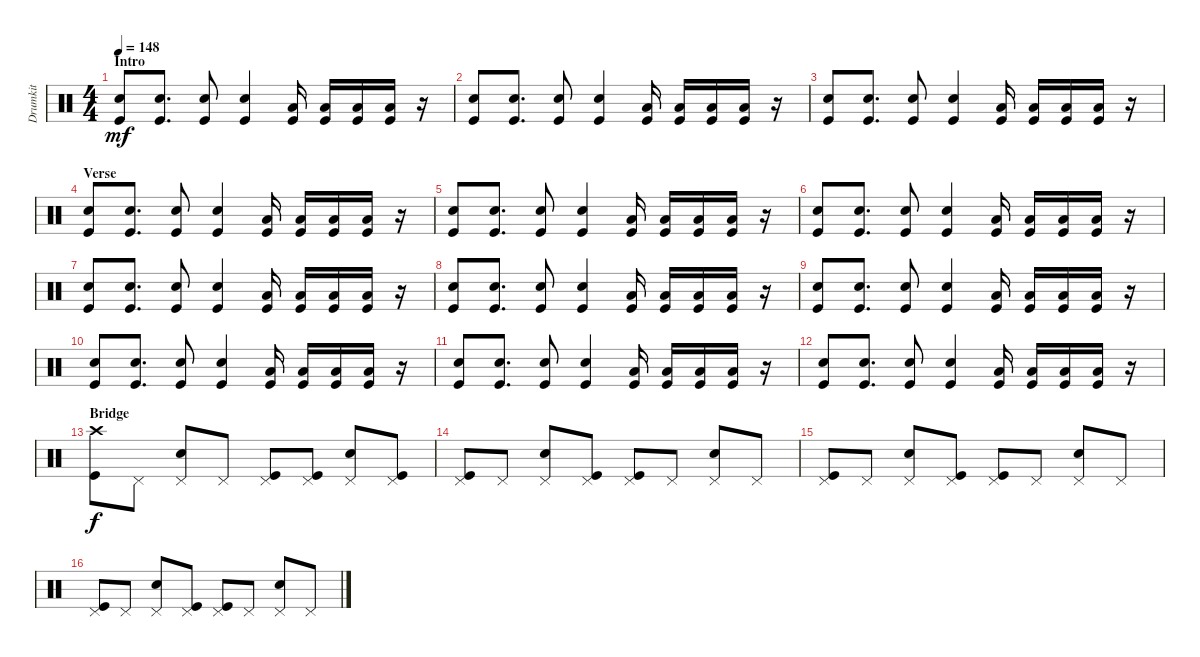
\track ("Drumkit" "Drumkit") {instrument percussion}
\staff {score}
\articulation defaults
\ts (4 4)
\section ("" "Intro")
\tempo 148
\clef neutral
\ks c
("Snare (hit) 2" "Kick (hit)").8{dy mf} ("Snare (hit) 2" "Kick (hit)").8{d} ("Snare (hit) 2" "Kick (hit)").8 ("Snare (hit) 2" "Kick (hit)").4 ("Kick (hit)" "Low Tom (hit)").16 ("Kick (hit)" "Low Tom (hit)").16 ("Kick (hit)" "Low Tom (hit)").16 ("Kick (hit)" "Low Tom (hit)").16 r.16 |
("Snare (hit) 2" "Kick (hit)").8 ("Snare (hit) 2" "Kick (hit)").8{d} ("Snare (hit) 2" "Kick (hit)").8 ("Snare (hit) 2" "Kick (hit)").4 ("Kick (hit)" "Low Tom (hit)").16 ("Kick (hit)" "Low Tom (hit)").16 ("Kick (hit)" "Low Tom (hit)").16 ("Kick (hit)" "Low Tom (hit)").16 r.16 |
("Snare (hit) 2" "Kick (hit)").8 ("Snare (hit) 2" "Kick (hit)").8{d} ("Snare (hit) 2" "Kick (hit)").8 ("Snare (hit) 2" "Kick (hit)").4 ("Kick (hit)" "Low Tom (hit)").16 ("Kick (hit)" "Low Tom (hit)").16 ("Kick (hit)" "Low Tom (hit)").16 ("Kick (hit)" "Low Tom (hit)").16 r.16 |
\section ("" "Verse")
("Snare (hit) 2" "Kick (hit)").8 ("Snare (hit) 2" "Kick (hit)").8{d} ("Snare (hit) 2" "Kick (hit)").8 ("Snare (hit) 2" "Kick (hit)").4 ("Kick (hit)" "Low Tom (hit)").16 ("Kick (hit)" "Low Tom (hit)").16 ("Kick (hit)" "Low Tom (hit)").16 ("Kick (hit)" "Low Tom (hit)").16 r.16 |
("Snare (hit) 2" "Kick (hit)").8 ("Snare (hit) 2" "Kick (hit)").8{d} ("Snare (hit) 2" "Kick (hit)").8 ("Snare (hit) 2" "Kick (hit)").4 ("Kick (hit)" "Low Tom (hit)").16 ("Kick (hit)" "Low Tom (hit)").16 ("Kick (hit)" "Low Tom (hit)").16 ("Kick (hit)" "Low Tom (hit)").16 r.16 |
("Snare (hit) 2" "Kick (hit)").8 ("Snare (hit) 2" "Kick (hit)").8{d} ("Snare (hit) 2" "Kick (hit)").8 ("Snare (hit) 2" "Kick (hit)").4 ("Kick (hit)" "Low Tom (hit)").16 ("Kick (hit)" "Low Tom (hit)").16 ("Kick (hit)" "Low Tom (hit)").16 ("Kick (hit)" "Low Tom (hit)").16 r.16 |
("Snare (hit) 2" "Kick (hit)").8 ("Snare (hit) 2" "Kick (hit)").8{d} ("Snare (hit) 2" "Kick (hit)").8 ("Snare (hit) 2" "Kick (hit)").4 ("Kick (hit)" "Low Tom (hit)").16 ("Kick (hit)" "Low Tom (hit)").16 ("Kick (hit)" "Low Tom (hit)").16 ("Kick (hit)" "Low Tom (hit)").16 r.16 |
("Snare (hit) 2" "Kick (hit)").8 ("Snare (hit) 2" "Kick (hit)").8{d} ("Snare (hit) 2" "Kick (hit)").8 ("Snare (hit) 2" "Kick (hit)").4 ("Kick (hit)" "Low Tom (hit)").16 ("Kick (hit)" "Low Tom (hit)").16 ("Kick (hit)" "Low Tom (hit)").16 ("Kick (hit)" "Low Tom (hit)").16 r.16 |
("Snare (hit) 2" "Kick (hit)").8 ("Snare (hit) 2" "Kick (hit)").8{d} ("Snare (hit) 2" "Kick (hit)").8 ("Snare (hit) 2" "Kick (hit)").4 ("Kick (hit)" "Low Tom (hit)").16 ("Kick (hit)" "Low Tom (hit)").16 ("Kick (hit)" "Low Tom (hit)").16 ("Kick (hit)" "Low Tom (hit)").16 r.16 |
("Snare (hit) 2" "Kick (hit)").8 ("Snare (hit) 2" "Kick (hit)").8{d} ("Snare (hit) 2" "Kick (hit)").8 ("Snare (hit) 2" "Kick (hit)").4 ("Kick (hit)" "Low Tom (hit)").16 ("Kick (hit)" "Low Tom (hit)").16 ("Kick (hit)" "Low Tom (hit)").16 ("Kick (hit)" "Low Tom (hit)").16 r.16 |
("Snare (hit) 2" "Kick (hit)").8 ("Snare (hit) 2" "Kick (hit)").8{d} ("Snare (hit) 2" "Kick (hit)").8 ("Snare (hit) 2" "Kick (hit)").4 ("Kick (hit)" "Low Tom (hit)").16 ("Kick (hit)" "Low Tom (hit)").16 ("Kick (hit)" "Low Tom (hit)").16 ("Kick (hit)" "Low Tom (hit)").16 r.16 |
("Snare (hit) 2" "Kick (hit)").8 ("Snare (hit) 2" "Kick (hit)").8{d} ("Snare (hit) 2" "Kick (hit)").8 ("Snare (hit) 2" "Kick (hit)").4 ("Kick (hit)" "Low Tom (hit)").16 ("Kick (hit)" "Low Tom (hit)").16 ("Kick (hit)" "Low Tom (hit)").16 ("Kick (hit)" "Low Tom (hit)").16 r.16 |
\section ("" "Bridge")
("Crash high (hit)" "Kick (hit)").8{dy f} "Pedal Hi-Hat (hit)".8 ("Pedal Hi-Hat (hit)" "Snare (hit) 2").8 "Pedal Hi-Hat (hit)".8 ("Pedal Hi-Hat (hit)" "Kick (hit)").8 ("Pedal Hi-Hat (hit)" "Kick (hit)").8 ("Pedal Hi-Hat (hit)" "Snare (hit) 2").8 ("Pedal Hi-Hat (hit)" "Kick (hit)").8 |
("Pedal Hi-Hat (hit)" "Kick (hit)").8 "Pedal Hi-Hat (hit)".8 ("Pedal Hi-Hat (hit)" "Snare (hit) 2").8 ("Pedal Hi-Hat (hit)" "Kick (hit)").8 ("Pedal Hi-Hat (hit)" "Kick (hit)").8 "Pedal Hi-Hat (hit)".8 ("Pedal Hi-Hat (hit)" "Snare (hit) 2").8 "Pedal Hi-Hat (hit)".8 |
("Pedal Hi-Hat (hit)" "Kick (hit)").8 "Pedal Hi-Hat (hit)".8 ("Pedal Hi-Hat (hit)" "Snare (hit) 2").8 ("Pedal Hi-Hat (hit)" "Kick (hit)").8 ("Pedal Hi-Hat (hit)" "Kick (hit)").8 "Pedal Hi-Hat (hit)".8 ("Pedal Hi-Hat (hit)" "Snare (hit) 2").8 "Pedal Hi-Hat (hit)".8 |
("Pedal Hi-Hat (hit)" "Kick (hit)").8 "Pedal Hi-Hat (hit)".8 ("Pedal Hi-Hat (hit)" "Snare (hit) 2").8 ("Pedal Hi-Hat (hit)" "Kick (hit)").8 ("Pedal Hi-Hat (hit)" "Kick (hit)").8 "Pedal Hi-Hat (hit)".8 ("Pedal Hi-Hat (hit)" "Snare (hit) 2").8 "Pedal Hi-Hat (hit)".8
